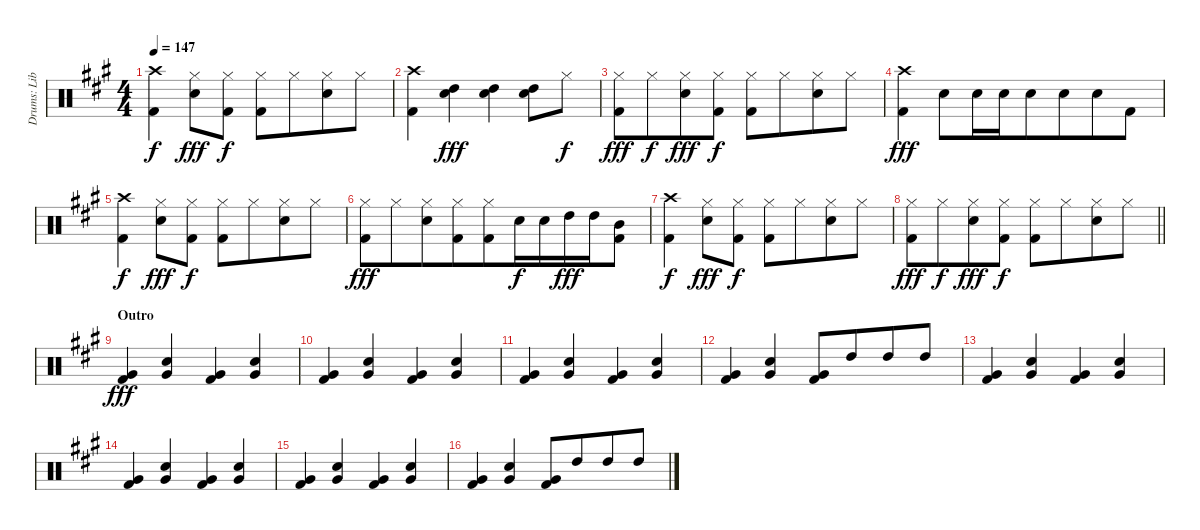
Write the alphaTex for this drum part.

\track ("Drums: Liberty" "Drums: Lib") {instrument percussion}
\staff {score}
\articulation defaults
\ts (4 4)
\tempo 147
\clef neutral
\ks a
("Crash high (hit)" "Kick (hit) 2").4{dy f} ("Hi-Hat (closed)" "Electric Snare (hit)").8{dy fff} ("Hi-Hat (closed)" "Kick (hit) 2").8{dy f} ("Hi-Hat (closed)" "Kick (hit) 2").8 "Hi-Hat (closed)".8{beam merge} ("Hi-Hat (closed)" "Electric Snare (hit)").8 "Hi-Hat (closed)".8 |
("Crash high (hit)" "Kick (hit) 2").4 ("Electric Snare (hit)" "High Tom (hit)").4{dy fff} ("Electric Snare (hit)" "High Tom (hit)").4 ("Electric Snare (hit)" "High Tom (hit)").8 "Hi-Hat (closed)".8{dy f} |
("Hi-Hat (closed)" "Kick (hit) 2").8{dy fff} "Hi-Hat (closed)".8{dy f beam merge} ("Hi-Hat (closed)" "Electric Snare (hit)").8{dy fff} ("Hi-Hat (closed)" "Kick (hit) 2").8{dy f} ("Hi-Hat (closed)" "Kick (hit) 2").8 "Hi-Hat (closed)".8{beam merge} ("Hi-Hat (closed)" "Electric Snare (hit)").8 "Hi-Hat (closed)".8 |
("Crash high (hit)" "Kick (hit) 2").4{dy fff beam merge} "Electric Snare (hit)".8{beam merge} "Electric Snare (hit)".16{beam merge} "Electric Snare (hit)".16{beam merge} "Electric Snare (hit)".8{beam merge} "Electric Snare (hit)".8{beam merge} "Electric Snare (hit)".8 "Kick (hit) 2".8 |
("Crash high (hit)" "Kick (hit) 2").4{dy f} ("Hi-Hat (closed)" "Electric Snare (hit)").8{dy fff} ("Hi-Hat (closed)" "Kick (hit) 2").8{dy f} ("Hi-Hat (closed)" "Kick (hit) 2").8 "Hi-Hat (closed)".8{beam merge} ("Hi-Hat (closed)" "Electric Snare (hit)").8 "Hi-Hat (closed)".8 |
("Hi-Hat (closed)" "Kick (hit) 2").8{dy fff} "Hi-Hat (closed)".8{beam merge} ("Hi-Hat (closed)" "Electric Snare (hit)").8 ("Hi-Hat (closed)" "Kick (hit) 2").8{beam merge} ("Hi-Hat (closed)" "Kick (hit) 2").8{beam merge} "Electric Snare (hit)".16{dy f beam merge} "Electric Snare (hit)".16{beam merge} "High Tom (hit)".16{dy fff beam merge} "High Tom (hit)".16{beam merge} ("Mid Tom (hit)" "Kick (hit) 2").8 |
("Crash high (hit)" "Kick (hit) 2").4{dy f} ("Hi-Hat (closed)" "Electric Snare (hit)").8{dy fff} ("Hi-Hat (closed)" "Kick (hit) 2").8{dy f} ("Hi-Hat (closed)" "Kick (hit) 2").8 "Hi-Hat (closed)".8{beam merge} ("Hi-Hat (closed)" "Electric Snare (hit)").8 "Hi-Hat (closed)".8 |
\barLineRight lightlight
("Hi-Hat (closed)" "Kick (hit) 2").8{dy fff} "Hi-Hat (closed)".8{dy f beam merge} ("Hi-Hat (closed)" "Electric Snare (hit)").8{dy fff} ("Hi-Hat (closed)" "Kick (hit) 2").8{dy f} ("Hi-Hat (closed)" "Kick (hit) 2").8 "Hi-Hat (closed)".8{beam merge} ("Hi-Hat (closed)" "Electric Snare (hit)").8 "Hi-Hat (closed)".8 |
\section ("" "Outro")
("Very Low Tom (hit)" "Kick (hit) 2").4{dy fff} ("Electric Snare (hit)" "Very Low Tom (hit)").4 ("Very Low Tom (hit)" "Kick (hit) 2").4 ("Electric Snare (hit)" "Very Low Tom (hit)").4 |
("Very Low Tom (hit)" "Kick (hit) 2").4 ("Electric Snare (hit)" "Very Low Tom (hit)").4 ("Very Low Tom (hit)" "Kick (hit) 2").4 ("Electric Snare (hit)" "Very Low Tom (hit)").4 |
("Very Low Tom (hit)" "Kick (hit) 2").4 ("Electric Snare (hit)" "Very Low Tom (hit)").4 ("Very Low Tom (hit)" "Kick (hit) 2").4 ("Electric Snare (hit)" "Very Low Tom (hit)").4 |
("Very Low Tom (hit)" "Kick (hit) 2").4 ("Electric Snare (hit)" "Very Low Tom (hit)").4 ("Very Low Tom (hit)" "Kick (hit) 2").8{beam merge} "High Tom (hit)".8{beam merge} "High Tom (hit)".8{beam merge} "High Tom (hit)".8 |
("Very Low Tom (hit)" "Kick (hit) 2").4 ("Electric Snare (hit)" "Very Low Tom (hit)").4 ("Very Low Tom (hit)" "Kick (hit) 2").4 ("Electric Snare (hit)" "Very Low Tom (hit)").4 |
("Very Low Tom (hit)" "Kick (hit) 2").4 ("Electric Snare (hit)" "Very Low Tom (hit)").4 ("Very Low Tom (hit)" "Kick (hit) 2").4 ("Electric Snare (hit)" "Very Low Tom (hit)").4 |
("Very Low Tom (hit)" "Kick (hit) 2").4 ("Electric Snare (hit)" "Very Low Tom (hit)").4 ("Very Low Tom (hit)" "Kick (hit) 2").4 ("Electric Snare (hit)" "Very Low Tom (hit)").4 |
("Very Low Tom (hit)" "Kick (hit) 2").4 ("Electric Snare (hit)" "Very Low Tom (hit)").4 ("Very Low Tom (hit)" "Kick (hit) 2").8{beam merge} "High Tom (hit)".8{beam merge} "High Tom (hit)".8{beam merge} "High Tom (hit)".8
